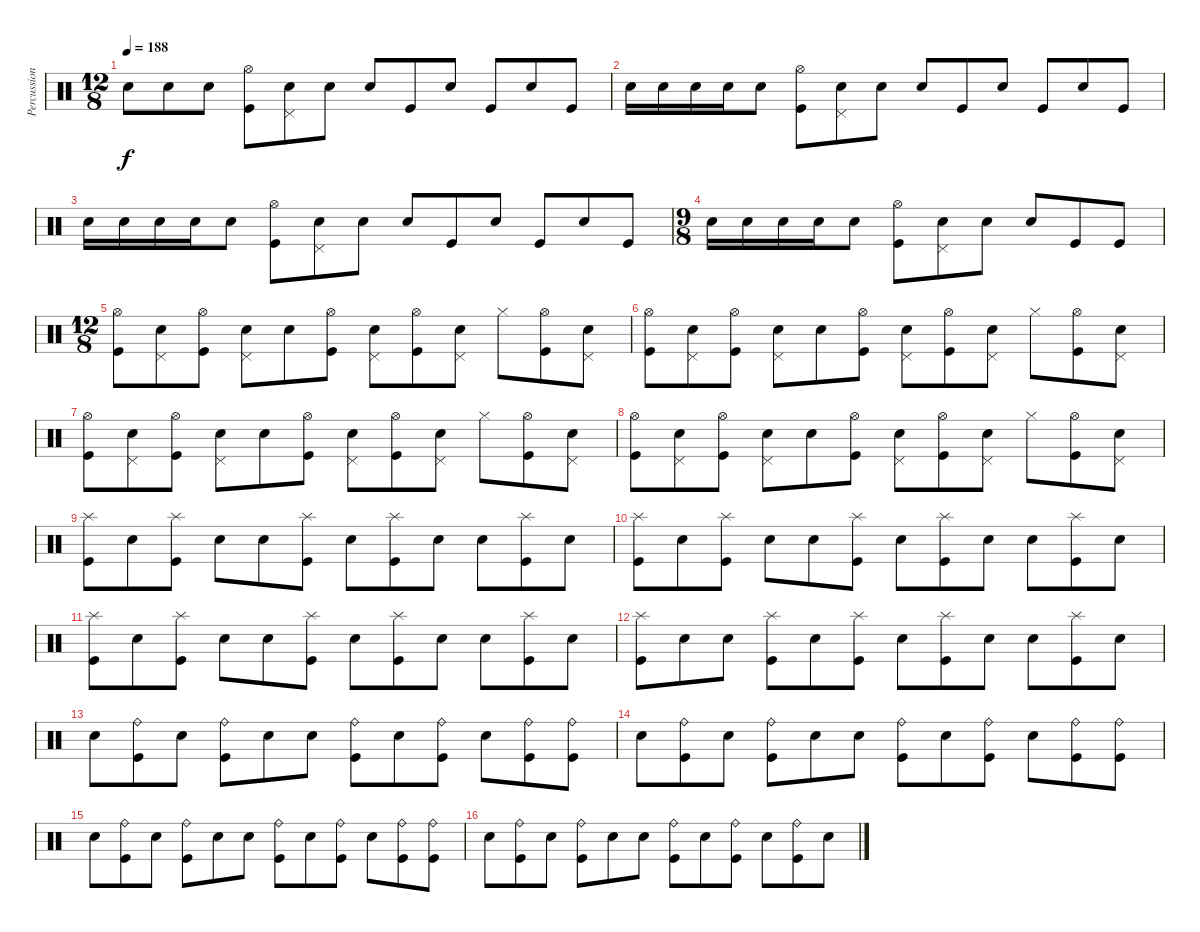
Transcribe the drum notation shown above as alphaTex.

\track ("Percussion" "Percussion") {instrument percussion}
\staff {score}
\articulation defaults
\ts (12 8)
\tempo 188
\clef neutral
\ks c "Snare (hit) 2".8{dy f} "Snare (hit) 2".8 "Snare (hit) 2".8
("Hi-Hat (open)" "Kick (hit)").8 ("Snare (hit) 2" "Pedal Hi-Hat (hit)").8 "Snare (hit) 2".8 "Electric Snare (hit)".8 "Kick (hit)".8 "Electric Snare (hit)".8 "Kick (hit)".8 "Electric Snare (hit)".8 "Kick (hit)".8 |
"Snare (hit) 2".16 "Snare (hit) 2".16 "Snare (hit) 2".16 "Snare (hit) 2".16 "Snare (hit) 2".8 ("Hi-Hat (open)" "Kick (hit)").8 ("Snare (hit) 2" "Pedal Hi-Hat (hit)").8 "Snare (hit) 2".8 "Electric Snare (hit)".8 "Kick (hit)".8 "Electric Snare (hit)".8 "Kick (hit)".8 "Electric Snare (hit)".8 "Kick (hit)".8 |
"Snare (hit) 2".16 "Snare (hit) 2".16 "Snare (hit) 2".16 "Snare (hit) 2".16 "Snare (hit) 2".8 ("Hi-Hat (open)" "Kick (hit)").8 ("Snare (hit) 2" "Pedal Hi-Hat (hit)").8 "Snare (hit) 2".8 "Electric Snare (hit)".8 "Kick (hit)".8 "Electric Snare (hit)".8 "Kick (hit)".8 "Electric Snare (hit)".8 "Kick (hit)".8 |
\ts (9 8)
"Snare (hit) 2".16 "Snare (hit) 2".16 "Snare (hit) 2".16 "Snare (hit) 2".16 "Snare (hit) 2".8 ("Hi-Hat (open)" "Kick (hit)").8 ("Snare (hit) 2" "Pedal Hi-Hat (hit)").8 "Snare (hit) 2".8 "Electric Snare (hit)".8 "Kick (hit)".8 "Kick (hit)".8 |
\ts (12 8)
("Hi-Hat (open)" "Kick (hit)").8 ("Electric Snare (hit)" "Pedal Hi-Hat (hit)").8 ("Hi-Hat (open)" "Kick (hit)").8 ("Electric Snare (hit)" "Pedal Hi-Hat (hit)").8 "Electric Snare (hit)".8 ("Hi-Hat (open)" "Kick (hit)").8 ("Electric Snare (hit)" "Pedal Hi-Hat (hit)").8 ("Hi-Hat (open)" "Kick (hit)").8 ("Electric Snare (hit)" "Pedal Hi-Hat (hit)").8 "Hi-Hat (closed)".8 ("Hi-Hat (open)" "Kick (hit)").8 ("Electric Snare (hit)" "Pedal Hi-Hat (hit)").8 |
("Hi-Hat (open)" "Kick (hit)").8 ("Electric Snare (hit)" "Pedal Hi-Hat (hit)").8 ("Hi-Hat (open)" "Kick (hit)").8 ("Electric Snare (hit)" "Pedal Hi-Hat (hit)").8 "Electric Snare (hit)".8 ("Hi-Hat (open)" "Kick (hit)").8 ("Electric Snare (hit)" "Pedal Hi-Hat (hit)").8 ("Hi-Hat (open)" "Kick (hit)").8 ("Electric Snare (hit)" "Pedal Hi-Hat (hit)").8 "Hi-Hat (closed)".8 ("Hi-Hat (open)" "Kick (hit)").8 ("Electric Snare (hit)" "Pedal Hi-Hat (hit)").8 |
("Hi-Hat (open)" "Kick (hit)").8 ("Electric Snare (hit)" "Pedal Hi-Hat (hit)").8 ("Hi-Hat (open)" "Kick (hit)").8 ("Electric Snare (hit)" "Pedal Hi-Hat (hit)").8 "Electric Snare (hit)".8 ("Hi-Hat (open)" "Kick (hit)").8 ("Electric Snare (hit)" "Pedal Hi-Hat (hit)").8 ("Hi-Hat (open)" "Kick (hit)").8 ("Electric Snare (hit)" "Pedal Hi-Hat (hit)").8 "Hi-Hat (closed)".8 ("Hi-Hat (open)" "Kick (hit)").8 ("Electric Snare (hit)" "Pedal Hi-Hat (hit)").8 |
("Hi-Hat (open)" "Kick (hit)").8 ("Electric Snare (hit)" "Pedal Hi-Hat (hit)").8 ("Hi-Hat (open)" "Kick (hit)").8 ("Electric Snare (hit)" "Pedal Hi-Hat (hit)").8 "Electric Snare (hit)".8 ("Hi-Hat (open)" "Kick (hit)").8 ("Electric Snare (hit)" "Pedal Hi-Hat (hit)").8 ("Hi-Hat (open)" "Kick (hit)").8 ("Electric Snare (hit)" "Pedal Hi-Hat (hit)").8 "Hi-Hat (closed)".8 ("Hi-Hat (open)" "Kick (hit)").8 ("Electric Snare (hit)" "Pedal Hi-Hat (hit)").8 |
("Splash (hit)" "Kick (hit)").8 "Electric Snare (hit)".8 ("Splash (hit)" "Kick (hit)").8 "Electric Snare (hit)".8 "Electric Snare (hit)".8 ("Splash (hit)" "Kick (hit)").8 "Electric Snare (hit)".8 ("Splash (hit)" "Kick (hit)").8 "Electric Snare (hit)".8 "Electric Snare (hit)".8 ("Splash (hit)" "Kick (hit)").8 "Electric Snare (hit)".8 |
("Splash (hit)" "Kick (hit)").8 "Electric Snare (hit)".8 ("Splash (hit)" "Kick (hit)").8 "Electric Snare (hit)".8 "Electric Snare (hit)".8 ("Splash (hit)" "Kick (hit)").8 "Electric Snare (hit)".8 ("Splash (hit)" "Kick (hit)").8 "Electric Snare (hit)".8 "Electric Snare (hit)".8 ("Splash (hit)" "Kick (hit)").8 "Electric Snare (hit)".8 |
("Splash (hit)" "Kick (hit)").8 "Electric Snare (hit)".8 ("Splash (hit)" "Kick (hit)").8 "Electric Snare (hit)".8 "Electric Snare (hit)".8 ("Splash (hit)" "Kick (hit)").8 "Electric Snare (hit)".8 ("Splash (hit)" "Kick (hit)").8 "Electric Snare (hit)".8 "Electric Snare (hit)".8 ("Splash (hit)" "Kick (hit)").8 "Electric Snare (hit)".8 |
("Splash (hit)" "Kick (hit)").8 "Electric Snare (hit)".8 "Electric Snare (hit)".8 ("Splash (hit)" "Kick (hit)").8 "Electric Snare (hit)".8 ("Splash (hit)" "Kick (hit)").8 "Electric Snare (hit)".8 ("Splash (hit)" "Kick (hit)").8 "Electric Snare (hit)".8 "Electric Snare (hit)".8 ("Splash (hit)" "Kick (hit)").8 "Electric Snare (hit)".8 |
"Electric Snare (hit)".8 ("Ride (bell)" "Kick (hit)").8 "Electric Snare (hit)".8 ("Ride (bell)" "Kick (hit)").8 "Electric Snare (hit)".8 "Electric Snare (hit)".8 ("Ride (bell)" "Kick (hit)").8 "Electric Snare (hit)".8 ("Ride (bell)" "Kick (hit)").8 "Electric Snare (hit)".8 ("Ride (bell)" "Kick (hit)").8 ("Ride (bell)" "Kick (hit)").8 |
"Electric Snare (hit)".8 ("Ride (bell)" "Kick (hit)").8 "Electric Snare (hit)".8 ("Ride (bell)" "Kick (hit)").8 "Electric Snare (hit)".8 "Electric Snare (hit)".8 ("Ride (bell)" "Kick (hit)").8 "Electric Snare (hit)".8 ("Ride (bell)" "Kick (hit)").8 "Electric Snare (hit)".8 ("Ride (bell)" "Kick (hit)").8 ("Ride (bell)" "Kick (hit)").8 |
"Electric Snare (hit)".8 ("Ride (bell)" "Kick (hit)").8 "Electric Snare (hit)".8 ("Ride (bell)" "Kick (hit)").8 "Electric Snare (hit)".8 "Electric Snare (hit)".8 ("Ride (bell)" "Kick (hit)").8 "Electric Snare (hit)".8 ("Ride (bell)" "Kick (hit)").8 "Electric Snare (hit)".8 ("Ride (bell)" "Kick (hit)").8 ("Ride (bell)" "Kick (hit)").8 |
"Electric Snare (hit)".8 ("Ride (bell)" "Kick (hit)").8 "Electric Snare (hit)".8 ("Ride (bell)" "Kick (hit)").8 "Electric Snare (hit)".8 "Electric Snare (hit)".8 ("Ride (bell)" "Kick (hit)").8 "Electric Snare (hit)".8 ("Ride (bell)" "Kick (hit)").8 "Electric Snare (hit)".8 ("Ride (bell)" "Kick (hit)").8 "Electric Snare (hit)".8
